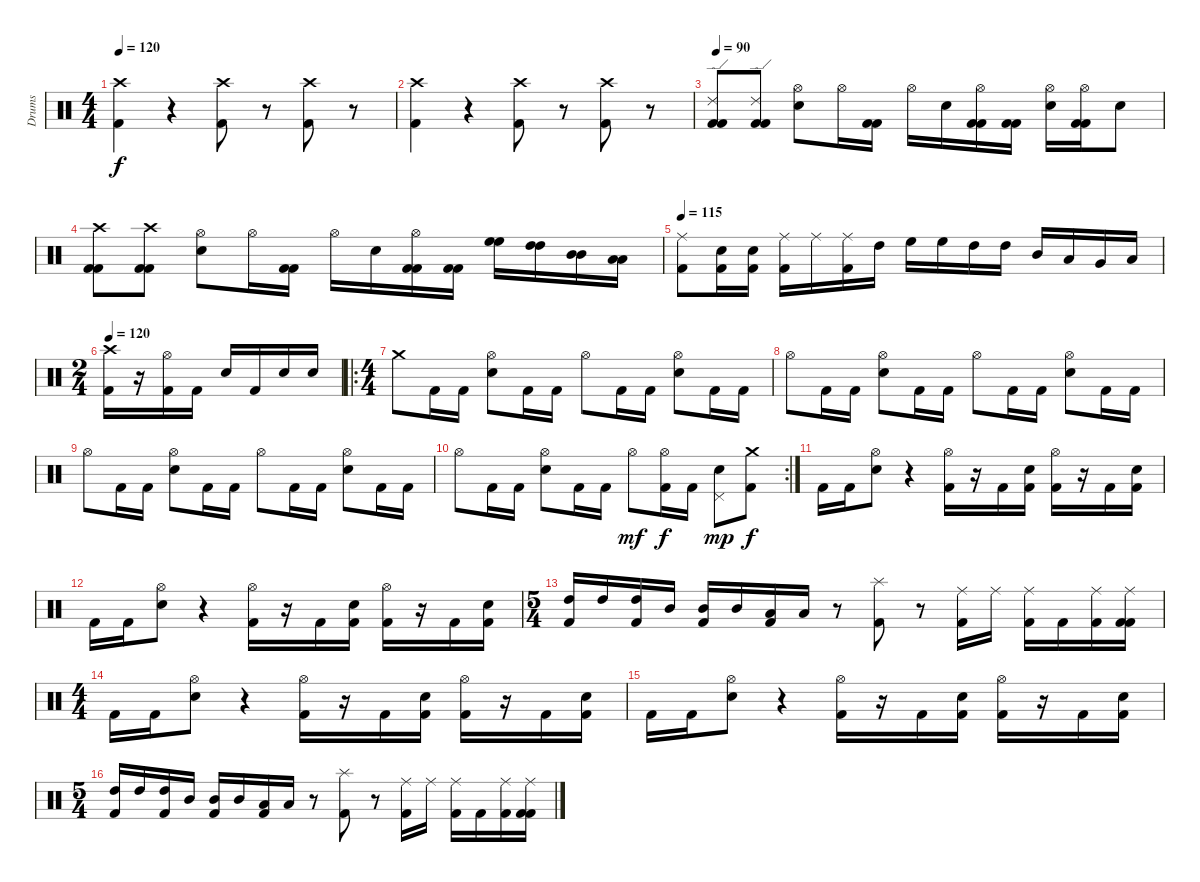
\track ("Drums" "Drums") {instrument percussion}
\staff {score}
\articulation defaults
\ts (4 4)
\tempo 120
\tempo 90
\tempo 120
\clef neutral
\ks c
("Crash high (hit)" "Kick (hit) 2").4{dy f} r.4 ("Crash high (hit)" "Kick (hit) 2").8 r.8 ("Crash high (hit)" "Kick (hit) 2").8 r.8 |
("Crash high (hit)" "Kick (hit) 2").4 r.4 ("Crash high (hit)" "Kick (hit) 2").8 r.8 ("Crash high (hit)" "Kick (hit) 2").8 r.8 |
\tempo 90
("Ride (edge) 2" "Kick (hit) 2" "Kick (hit) 2").8 ("Ride (edge) 2" "Kick (hit) 2" "Kick (hit) 2").8 ("Hi-Hat (open)" "Snare (hit) 2").8 "Hi-Hat (open)".16 ("Kick (hit) 2" "Kick (hit) 2").16 "Hi-Hat (open)".16 "Snare (hit) 2".16 ("Hi-Hat (open)" "Kick (hit) 2" "Kick (hit) 2").16 ("Kick (hit) 2" "Kick (hit) 2").16 ("Hi-Hat (open)" "Snare (hit) 2").16 ("Hi-Hat (open)" "Kick (hit) 2" "Kick (hit) 2").16 "Snare (hit) 2".8 |
("Crash high (hit)" "Kick (hit) 2" "Kick (hit) 2").8 ("Crash high (hit)" "Kick (hit) 2" "Kick (hit) 2").8 ("Hi-Hat (open)" "Snare (hit) 2").8 "Hi-Hat (open)".16 ("Kick (hit) 2" "Kick (hit) 2").16 "Hi-Hat (open)".16 "Snare (hit) 2".16 ("Hi-Hat (open)" "Kick (hit) 2" "Kick (hit) 2").16 ("Kick (hit) 2" "Kick (hit) 2").16 ("High Floor Tom (hit)" "High Floor Tom (hit)").16 ("High Tom (hit)" "High Tom (hit)").16 ("Mid Tom (hit)" "Mid Tom (hit)").16 ("Low Tom (hit)" "Low Tom (hit)").16 |
\tempo 115
("Ride (middle)" "Kick (hit) 2").8 ("Snare (hit) 2" "Kick (hit) 2").16 ("Snare (hit) 2" "Kick (hit) 2").16 ("Ride (middle)" "Kick (hit) 2").16 "Ride (middle)".16 ("Ride (middle)" "Kick (hit) 2").16 "High Tom (hit)".16 "High Floor Tom (hit)".16 "High Floor Tom (hit)".16 "High Tom (hit)".16 "High Tom (hit)".16 "Mid Tom (hit)".16 "Low Tom (hit)".16 "Very Low Tom (hit)".16 "Low Floor Tom (hit)".16 |
\ts (2 4)
\tempo 120
("Crash high (hit)" "Kick (hit) 2").16 r.16 ("Hi-Hat (open)" "Kick (hit) 2").16 "Kick (hit) 2".16 "Snare (hit) 2".16 "Kick (hit) 2".16 "Snare (hit) 2".16 "Snare (hit) 2".16 |
\ro
\ts (4 4)
"Crash medium (hit)".8 "Kick (hit) 2".16 "Kick (hit) 2".16 ("Hi-Hat (open)" "Snare (hit) 2").8 "Kick (hit) 2".16 "Kick (hit) 2".16 "Hi-Hat (open)".8 "Kick (hit) 2".16 "Kick (hit) 2".16 ("Hi-Hat (open)" "Snare (hit) 2").8 "Kick (hit) 2".16 "Kick (hit) 2".16 |
"Hi-Hat (open)".8 "Kick (hit) 2".16 "Kick (hit) 2".16 ("Hi-Hat (open)" "Snare (hit) 2").8 "Kick (hit) 2".16 "Kick (hit) 2".16 "Hi-Hat (open)".8 "Kick (hit) 2".16 "Kick (hit) 2".16 ("Hi-Hat (open)" "Snare (hit) 2").8 "Kick (hit) 2".16 "Kick (hit) 2".16 |
"Hi-Hat (open)".8 "Kick (hit) 2".16 "Kick (hit) 2".16 ("Hi-Hat (open)" "Snare (hit) 2").8 "Kick (hit) 2".16 "Kick (hit) 2".16 "Hi-Hat (open)".8 "Kick (hit) 2".16 "Kick (hit) 2".16 ("Hi-Hat (open)" "Snare (hit) 2").8 "Kick (hit) 2".16 "Kick (hit) 2".16 |
\rc 2 "Hi-Hat (open)".8 "Kick (hit) 2".16 "Kick (hit) 2".16
("Hi-Hat (open)" "Snare (hit) 2").8 "Kick (hit) 2".16 "Kick (hit) 2".16 "Hi-Hat (open)".8{dy mf} ("Hi-Hat (open)" "Kick (hit) 2").16{dy f} "Kick (hit) 2".16 ("Pedal Hi-Hat (hit)" "Snare (hit) 2").8{dy mp} ("Crash medium (hit)" "Kick (hit) 2").8{dy f} |
"Kick (hit) 2".16 "Kick (hit) 2".16 ("Hi-Hat (open)" "Snare (hit) 2").8 r.4 ("Hi-Hat (open)" "Kick (hit) 2").16 r.16 "Kick (hit) 2".16 ("Snare (hit) 2" "Kick (hit) 2").16 ("Hi-Hat (open)" "Kick (hit) 2").16 r.16 "Kick (hit) 2".16 ("Snare (hit) 2" "Kick (hit) 2").16 |
"Kick (hit) 2".16 "Kick (hit) 2".16 ("Hi-Hat (open)" "Snare (hit) 2").8 r.4 ("Hi-Hat (open)" "Kick (hit) 2").16 r.16 "Kick (hit) 2".16 ("Snare (hit) 2" "Kick (hit) 2").16 ("Hi-Hat (open)" "Kick (hit) 2").16 r.16 "Kick (hit) 2".16 ("Snare (hit) 2" "Kick (hit) 2").16 |
\ts (5 4)
("High Tom (hit)" "Kick (hit) 2").16 "High Tom (hit)".16 ("High Tom (hit)" "Kick (hit) 2").16 "Mid Tom (hit)".16 ("Mid Tom (hit)" "Kick (hit) 2").16 "Mid Tom (hit)".16 ("Low Tom (hit)" "Kick (hit) 2").16 "Low Tom (hit)".16 r.8 ("Splash (hit)" "Kick (hit) 2").8 r.8 ("Ride (middle)" "Kick (hit) 2").16 "Ride (middle)".16 ("Ride (middle)" "Kick (hit) 2").16 "Kick (hit) 2".16 ("Ride (middle)" "Kick (hit) 2").16 ("Ride (middle)" "Kick (hit) 2" "Kick (hit) 2").16 |
\ts (4 4)
"Kick (hit) 2".16 "Kick (hit) 2".16 ("Hi-Hat (open)" "Snare (hit) 2").8 r.4 ("Hi-Hat (open)" "Kick (hit) 2").16 r.16 "Kick (hit) 2".16 ("Snare (hit) 2" "Kick (hit) 2").16 ("Hi-Hat (open)" "Kick (hit) 2").16 r.16 "Kick (hit) 2".16 ("Snare (hit) 2" "Kick (hit) 2").16 |
"Kick (hit) 2".16 "Kick (hit) 2".16 ("Hi-Hat (open)" "Snare (hit) 2").8 r.4 ("Hi-Hat (open)" "Kick (hit) 2").16 r.16 "Kick (hit) 2".16 ("Snare (hit) 2" "Kick (hit) 2").16 ("Hi-Hat (open)" "Kick (hit) 2").16 r.16 "Kick (hit) 2".16 ("Snare (hit) 2" "Kick (hit) 2").16 |
\ts (5 4)
("High Tom (hit)" "Kick (hit) 2").16 "High Tom (hit)".16 ("High Tom (hit)" "Kick (hit) 2").16 "Mid Tom (hit)".16 ("Mid Tom (hit)" "Kick (hit) 2").16 "Mid Tom (hit)".16 ("Low Tom (hit)" "Kick (hit) 2").16 "Low Tom (hit)".16 r.8 ("Splash (hit)" "Kick (hit) 2").8 r.8 ("Ride (middle)" "Kick (hit) 2").16 "Ride (middle)".16 ("Ride (middle)" "Kick (hit) 2").16 "Kick (hit) 2".16 ("Ride (middle)" "Kick (hit) 2").16 ("Ride (middle)" "Kick (hit) 2" "Kick (hit) 2").16
